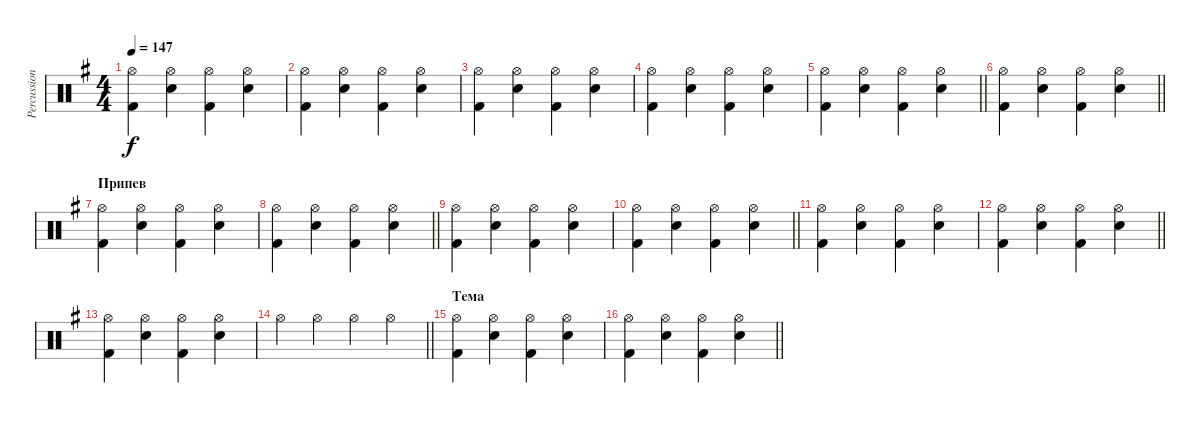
\track ("Percussion" "Percussion") {instrument percussion}
\staff {score}
\articulation defaults
\ts (4 4)
\tempo 147
\clef neutral
\ks eminor
("Hi-Hat (open)" "Kick (hit) 2").4{dy f} ("Hi-Hat (open)" "Snare (hit) 2").4 ("Hi-Hat (open)" "Kick (hit) 2").4 ("Hi-Hat (open)" "Snare (hit) 2").4 |
("Hi-Hat (open)" "Kick (hit) 2").4 ("Hi-Hat (open)" "Snare (hit) 2").4 ("Hi-Hat (open)" "Kick (hit) 2").4 ("Hi-Hat (open)" "Snare (hit) 2").4 |
("Hi-Hat (open)" "Kick (hit) 2").4 ("Hi-Hat (open)" "Snare (hit) 2").4 ("Hi-Hat (open)" "Kick (hit) 2").4 ("Hi-Hat (open)" "Snare (hit) 2").4 |
("Hi-Hat (open)" "Kick (hit) 2").4 ("Hi-Hat (open)" "Snare (hit) 2").4 ("Hi-Hat (open)" "Kick (hit) 2").4 ("Hi-Hat (open)" "Snare (hit) 2").4 |
\barLineRight lightlight
("Hi-Hat (open)" "Kick (hit) 2").4 ("Hi-Hat (open)" "Snare (hit) 2").4 ("Hi-Hat (open)" "Kick (hit) 2").4 ("Hi-Hat (open)" "Snare (hit) 2").4 |
\barLineRight lightlight
("Hi-Hat (open)" "Kick (hit) 2").4 ("Hi-Hat (open)" "Snare (hit) 2").4 ("Hi-Hat (open)" "Kick (hit) 2").4 ("Hi-Hat (open)" "Snare (hit) 2").4 |
\section ("" "Припев")
("Hi-Hat (open)" "Kick (hit) 2").4 ("Hi-Hat (open)" "Snare (hit) 2").4 ("Hi-Hat (open)" "Kick (hit) 2").4 ("Hi-Hat (open)" "Snare (hit) 2").4 |
\barLineRight lightlight
("Hi-Hat (open)" "Kick (hit) 2").4 ("Hi-Hat (open)" "Snare (hit) 2").4 ("Hi-Hat (open)" "Kick (hit) 2").4 ("Hi-Hat (open)" "Snare (hit) 2").4 |
("Hi-Hat (open)" "Kick (hit) 2").4 ("Hi-Hat (open)" "Snare (hit) 2").4 ("Hi-Hat (open)" "Kick (hit) 2").4 ("Hi-Hat (open)" "Snare (hit) 2").4 |
\barLineRight lightlight
("Hi-Hat (open)" "Kick (hit) 2").4 ("Hi-Hat (open)" "Snare (hit) 2").4 ("Hi-Hat (open)" "Kick (hit) 2").4 ("Hi-Hat (open)" "Snare (hit) 2").4 |
("Hi-Hat (open)" "Kick (hit) 2").4 ("Hi-Hat (open)" "Snare (hit) 2").4 ("Hi-Hat (open)" "Kick (hit) 2").4 ("Hi-Hat (open)" "Snare (hit) 2").4 |
\barLineRight lightlight
("Hi-Hat (open)" "Kick (hit) 2").4 ("Hi-Hat (open)" "Snare (hit) 2").4 ("Hi-Hat (open)" "Kick (hit) 2").4 ("Hi-Hat (open)" "Snare (hit) 2").4 |
("Hi-Hat (open)" "Kick (hit) 2").4 ("Hi-Hat (open)" "Snare (hit) 2").4 ("Hi-Hat (open)" "Kick (hit) 2").4 ("Hi-Hat (open)" "Snare (hit) 2").4 |
\barLineRight lightlight "Hi-Hat (open)".4 "Hi-Hat (open)".4 "Hi-Hat (open)".4 "Hi-Hat (open)".4
|
\section ("" "Тема")
("Hi-Hat (open)" "Kick (hit) 2").4 ("Hi-Hat (open)" "Snare (hit) 2").4 ("Hi-Hat (open)" "Kick (hit) 2").4 ("Hi-Hat (open)" "Snare (hit) 2").4 |
\barLineRight lightlight
("Hi-Hat (open)" "Kick (hit) 2").4 ("Hi-Hat (open)" "Snare (hit) 2").4 ("Hi-Hat (open)" "Kick (hit) 2").4 ("Hi-Hat (open)" "Snare (hit) 2").4
